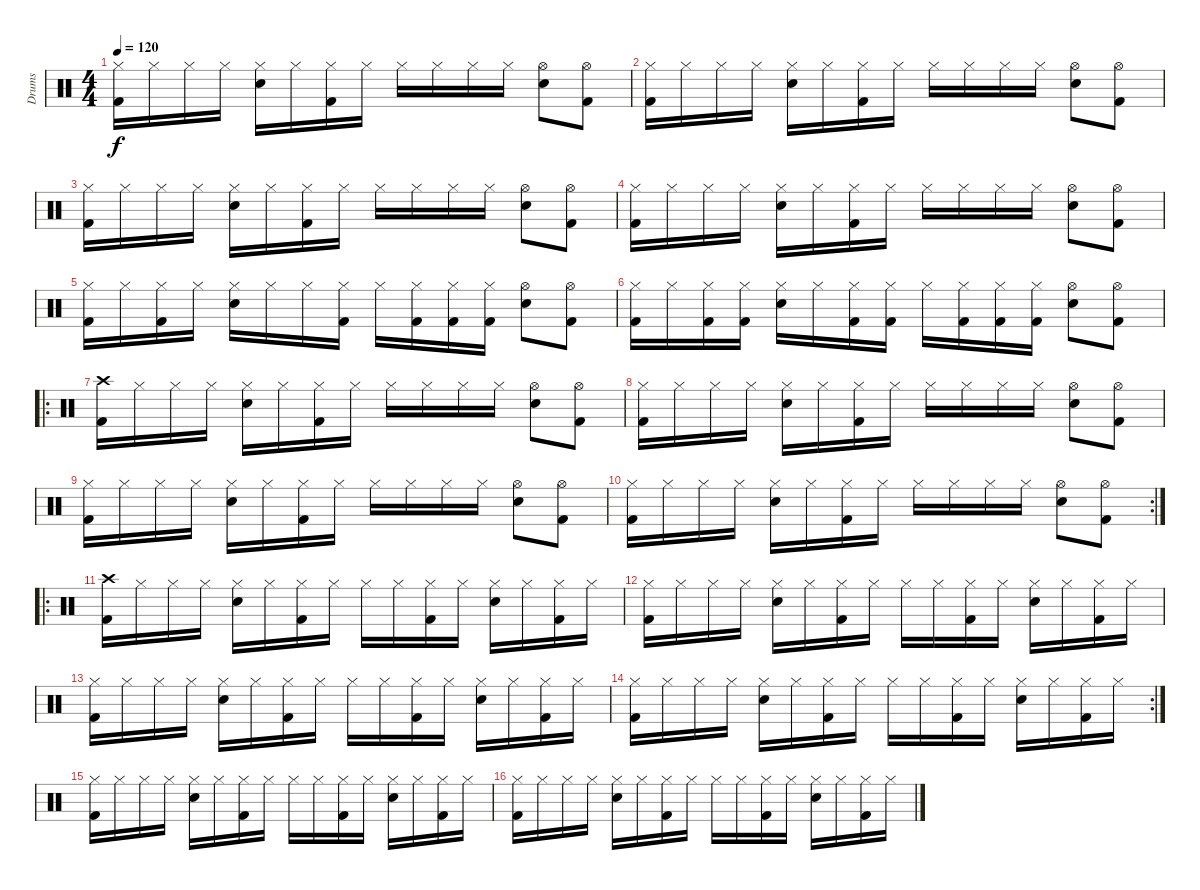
\track ("Drums" "Drums") {instrument percussion}
\staff {score}
\articulation defaults
\ts (4 4)
\tempo 120
\clef neutral
\ks c
("Hi-Hat (closed)" "Kick (hit) 2").16{dy f} "Hi-Hat (closed)".16 "Hi-Hat (closed)".16 "Hi-Hat (closed)".16 ("Hi-Hat (closed)" "Snare (hit) 2").16 "Hi-Hat (closed)".16 ("Hi-Hat (closed)" "Kick (hit) 2").16 "Hi-Hat (closed)".16 "Hi-Hat (closed)".16 "Hi-Hat (closed)".16 "Hi-Hat (closed)".16 "Hi-Hat (closed)".16 ("Hi-Hat (open)" "Snare (hit) 2").8 ("Hi-Hat (open)" "Kick (hit) 2").8 |
("Hi-Hat (closed)" "Kick (hit) 2").16 "Hi-Hat (closed)".16 "Hi-Hat (closed)".16 "Hi-Hat (closed)".16 ("Hi-Hat (closed)" "Snare (hit) 2").16 "Hi-Hat (closed)".16 ("Hi-Hat (closed)" "Kick (hit) 2").16 "Hi-Hat (closed)".16 "Hi-Hat (closed)".16 "Hi-Hat (closed)".16 "Hi-Hat (closed)".16 "Hi-Hat (closed)".16 ("Hi-Hat (open)" "Snare (hit) 2").8 ("Hi-Hat (open)" "Kick (hit) 2").8 |
("Hi-Hat (closed)" "Kick (hit) 2").16 "Hi-Hat (closed)".16 "Hi-Hat (closed)".16 "Hi-Hat (closed)".16 ("Hi-Hat (closed)" "Snare (hit) 2").16 "Hi-Hat (closed)".16 ("Hi-Hat (closed)" "Kick (hit) 2").16 "Hi-Hat (closed)".16 "Hi-Hat (closed)".16 "Hi-Hat (closed)".16 "Hi-Hat (closed)".16 "Hi-Hat (closed)".16 ("Hi-Hat (open)" "Snare (hit) 2").8 ("Hi-Hat (open)" "Kick (hit) 2").8 |
("Hi-Hat (closed)" "Kick (hit) 2").16 "Hi-Hat (closed)".16 "Hi-Hat (closed)".16 "Hi-Hat (closed)".16 ("Hi-Hat (closed)" "Snare (hit) 2").16 "Hi-Hat (closed)".16 ("Hi-Hat (closed)" "Kick (hit) 2").16 "Hi-Hat (closed)".16 "Hi-Hat (closed)".16 "Hi-Hat (closed)".16 "Hi-Hat (closed)".16 "Hi-Hat (closed)".16 ("Hi-Hat (open)" "Snare (hit) 2").8 ("Hi-Hat (open)" "Kick (hit) 2").8 |
("Hi-Hat (closed)" "Kick (hit) 2").16 "Hi-Hat (closed)".16 ("Hi-Hat (closed)" "Kick (hit) 2").16 "Hi-Hat (closed)".16 ("Hi-Hat (closed)" "Snare (hit) 2").16 "Hi-Hat (closed)".16 "Hi-Hat (closed)".16 ("Hi-Hat (closed)" "Kick (hit) 2").16 "Hi-Hat (closed)".16 ("Hi-Hat (closed)" "Kick (hit) 2").16 ("Hi-Hat (closed)" "Kick (hit) 2").16 ("Hi-Hat (closed)" "Kick (hit) 2").16 ("Hi-Hat (open)" "Snare (hit) 2").8 ("Hi-Hat (open)" "Kick (hit) 2").8 |
("Hi-Hat (closed)" "Kick (hit) 2").16 "Hi-Hat (closed)".16 ("Hi-Hat (closed)" "Kick (hit) 2").16 ("Hi-Hat (closed)" "Kick (hit) 2").16 ("Hi-Hat (closed)" "Snare (hit) 2").16 "Hi-Hat (closed)".16 ("Hi-Hat (closed)" "Kick (hit) 2").16 ("Hi-Hat (closed)" "Kick (hit) 2").16 "Hi-Hat (closed)".16 ("Hi-Hat (closed)" "Kick (hit) 2").16 ("Hi-Hat (closed)" "Kick (hit) 2").16 ("Hi-Hat (closed)" "Kick (hit) 2").16 ("Hi-Hat (open)" "Snare (hit) 2").8 ("Hi-Hat (open)" "Kick (hit) 2").8 |
\ro
("Crash high (hit)" "Kick (hit) 2").16 "Hi-Hat (closed)".16 "Hi-Hat (closed)".16 "Hi-Hat (closed)".16 ("Hi-Hat (closed)" "Snare (hit) 2").16 "Hi-Hat (closed)".16 ("Hi-Hat (closed)" "Kick (hit) 2").16 "Hi-Hat (closed)".16 "Hi-Hat (closed)".16 "Hi-Hat (closed)".16 "Hi-Hat (closed)".16 "Hi-Hat (closed)".16 ("Hi-Hat (open)" "Snare (hit) 2").8 ("Hi-Hat (open)" "Kick (hit) 2").8 |
("Hi-Hat (closed)" "Kick (hit) 2").16 "Hi-Hat (closed)".16 "Hi-Hat (closed)".16 "Hi-Hat (closed)".16 ("Hi-Hat (closed)" "Snare (hit) 2").16 "Hi-Hat (closed)".16 ("Hi-Hat (closed)" "Kick (hit) 2").16 "Hi-Hat (closed)".16 "Hi-Hat (closed)".16 "Hi-Hat (closed)".16 "Hi-Hat (closed)".16 "Hi-Hat (closed)".16 ("Hi-Hat (open)" "Snare (hit) 2").8 ("Hi-Hat (open)" "Kick (hit) 2").8 |
("Hi-Hat (closed)" "Kick (hit) 2").16 "Hi-Hat (closed)".16 "Hi-Hat (closed)".16 "Hi-Hat (closed)".16 ("Hi-Hat (closed)" "Snare (hit) 2").16 "Hi-Hat (closed)".16 ("Hi-Hat (closed)" "Kick (hit) 2").16 "Hi-Hat (closed)".16 "Hi-Hat (closed)".16 "Hi-Hat (closed)".16 "Hi-Hat (closed)".16 "Hi-Hat (closed)".16 ("Hi-Hat (open)" "Snare (hit) 2").8 ("Hi-Hat (open)" "Kick (hit) 2").8 |
\rc 2
("Hi-Hat (closed)" "Kick (hit) 2").16 "Hi-Hat (closed)".16 "Hi-Hat (closed)".16 "Hi-Hat (closed)".16 ("Hi-Hat (closed)" "Snare (hit) 2").16 "Hi-Hat (closed)".16 ("Hi-Hat (closed)" "Kick (hit) 2").16 "Hi-Hat (closed)".16 "Hi-Hat (closed)".16 "Hi-Hat (closed)".16 "Hi-Hat (closed)".16 "Hi-Hat (closed)".16 ("Hi-Hat (open)" "Snare (hit) 2").8 ("Hi-Hat (open)" "Kick (hit) 2").8 |
\ro
("Crash high (hit)" "Kick (hit) 2").16 "Hi-Hat (closed)".16 "Hi-Hat (closed)".16 "Hi-Hat (closed)".16 ("Hi-Hat (closed)" "Snare (hit) 2").16 "Hi-Hat (closed)".16 ("Hi-Hat (closed)" "Kick (hit) 2").16 "Hi-Hat (closed)".16 "Hi-Hat (closed)".16 "Hi-Hat (closed)".16 ("Hi-Hat (closed)" "Kick (hit) 2").16 "Hi-Hat (closed)".16 ("Hi-Hat (closed)" "Snare (hit) 2").16 "Hi-Hat (closed)".16 ("Hi-Hat (closed)" "Kick (hit) 2").16 "Hi-Hat (closed)".16 |
("Hi-Hat (closed)" "Kick (hit) 2").16 "Hi-Hat (closed)".16 "Hi-Hat (closed)".16 "Hi-Hat (closed)".16 ("Hi-Hat (closed)" "Snare (hit) 2").16 "Hi-Hat (closed)".16 ("Hi-Hat (closed)" "Kick (hit) 2").16 "Hi-Hat (closed)".16 "Hi-Hat (closed)".16 "Hi-Hat (closed)".16 ("Hi-Hat (closed)" "Kick (hit) 2").16 "Hi-Hat (closed)".16 ("Hi-Hat (closed)" "Snare (hit) 2").16 "Hi-Hat (closed)".16 ("Hi-Hat (closed)" "Kick (hit) 2").16 "Hi-Hat (closed)".16 |
("Hi-Hat (closed)" "Kick (hit) 2").16 "Hi-Hat (closed)".16 "Hi-Hat (closed)".16 "Hi-Hat (closed)".16 ("Hi-Hat (closed)" "Snare (hit) 2").16 "Hi-Hat (closed)".16 ("Hi-Hat (closed)" "Kick (hit) 2").16 "Hi-Hat (closed)".16 "Hi-Hat (closed)".16 "Hi-Hat (closed)".16 ("Hi-Hat (closed)" "Kick (hit) 2").16 "Hi-Hat (closed)".16 ("Hi-Hat (closed)" "Snare (hit) 2").16 "Hi-Hat (closed)".16 ("Hi-Hat (closed)" "Kick (hit) 2").16 "Hi-Hat (closed)".16 |
\rc 2
("Hi-Hat (closed)" "Kick (hit) 2").16 "Hi-Hat (closed)".16 "Hi-Hat (closed)".16 "Hi-Hat (closed)".16 ("Hi-Hat (closed)" "Snare (hit) 2").16 "Hi-Hat (closed)".16 ("Hi-Hat (closed)" "Kick (hit) 2").16 "Hi-Hat (closed)".16 "Hi-Hat (closed)".16 "Hi-Hat (closed)".16 ("Hi-Hat (closed)" "Kick (hit) 2").16 "Hi-Hat (closed)".16 ("Hi-Hat (closed)" "Snare (hit) 2").16 "Hi-Hat (closed)".16 ("Hi-Hat (closed)" "Kick (hit) 2").16 "Hi-Hat (closed)".16 |
("Hi-Hat (closed)" "Kick (hit) 2").16 "Hi-Hat (closed)".16 "Hi-Hat (closed)".16 "Hi-Hat (closed)".16 ("Hi-Hat (closed)" "Snare (hit) 2").16 "Hi-Hat (closed)".16 ("Hi-Hat (closed)" "Kick (hit) 2").16 "Hi-Hat (closed)".16 "Hi-Hat (closed)".16 "Hi-Hat (closed)".16 ("Hi-Hat (closed)" "Kick (hit) 2").16 "Hi-Hat (closed)".16 ("Hi-Hat (closed)" "Snare (hit) 2").16 "Hi-Hat (closed)".16 ("Hi-Hat (closed)" "Kick (hit) 2").16 "Hi-Hat (closed)".16 |
("Hi-Hat (closed)" "Kick (hit) 2").16 "Hi-Hat (closed)".16 "Hi-Hat (closed)".16 "Hi-Hat (closed)".16 ("Hi-Hat (closed)" "Snare (hit) 2").16 "Hi-Hat (closed)".16 ("Hi-Hat (closed)" "Kick (hit) 2").16 "Hi-Hat (closed)".16 "Hi-Hat (closed)".16 "Hi-Hat (closed)".16 ("Hi-Hat (closed)" "Kick (hit) 2").16 "Hi-Hat (closed)".16 ("Hi-Hat (closed)" "Snare (hit) 2").16 "Hi-Hat (closed)".16 ("Hi-Hat (closed)" "Kick (hit) 2").16 "Hi-Hat (closed)".16
